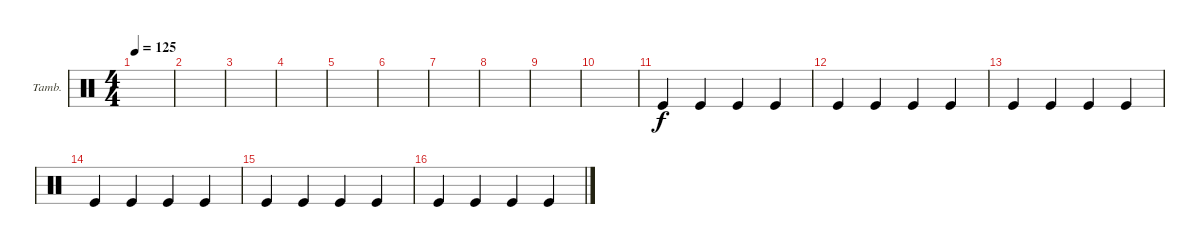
\defaultSystemsLayout 4
\bracketExtendMode groupsimilarinstruments
\firstSystemTrackNameOrientation horizontal
\otherSystemsTrackNameOrientation horizontal
\track ("Tambourine" "Tamb.") {instrument percussion}
\staff {score}
\articulation defaults
\ts (4 4)
\tempo 125
\clef neutral
\scale
0.472222
\ks c
|
\scale
0.263889 |
\scale
0.263889 |
\scale
0.333333 |
\scale
0.333333 |
\scale
0.333333 |
\scale
0.333333 |
\scale
0.333333 |
\scale
0.333333 |
\scale
0.333333 |
\scale
0.333333 "Kick (hit)".4 "Kick (hit)".4 "Kick (hit)".4 "Kick (hit)".4 |
\scale
0.333333 "Kick (hit)".4 "Kick (hit)".4 "Kick (hit)".4 "Kick (hit)".4 |
\scale
0.333333 "Kick (hit)".4 "Kick (hit)".4 "Kick (hit)".4 "Kick (hit)".4 |
\scale
0.333333 "Kick (hit)".4 "Kick (hit)".4 "Kick (hit)".4 "Kick (hit)".4 |
\scale
0.333333 "Kick (hit)".4 "Kick (hit)".4 "Kick (hit)".4 "Kick (hit)".4 |
\scale
0.333333 "Kick (hit)".4 "Kick (hit)".4 "Kick (hit)".4 "Kick (hit)".4
